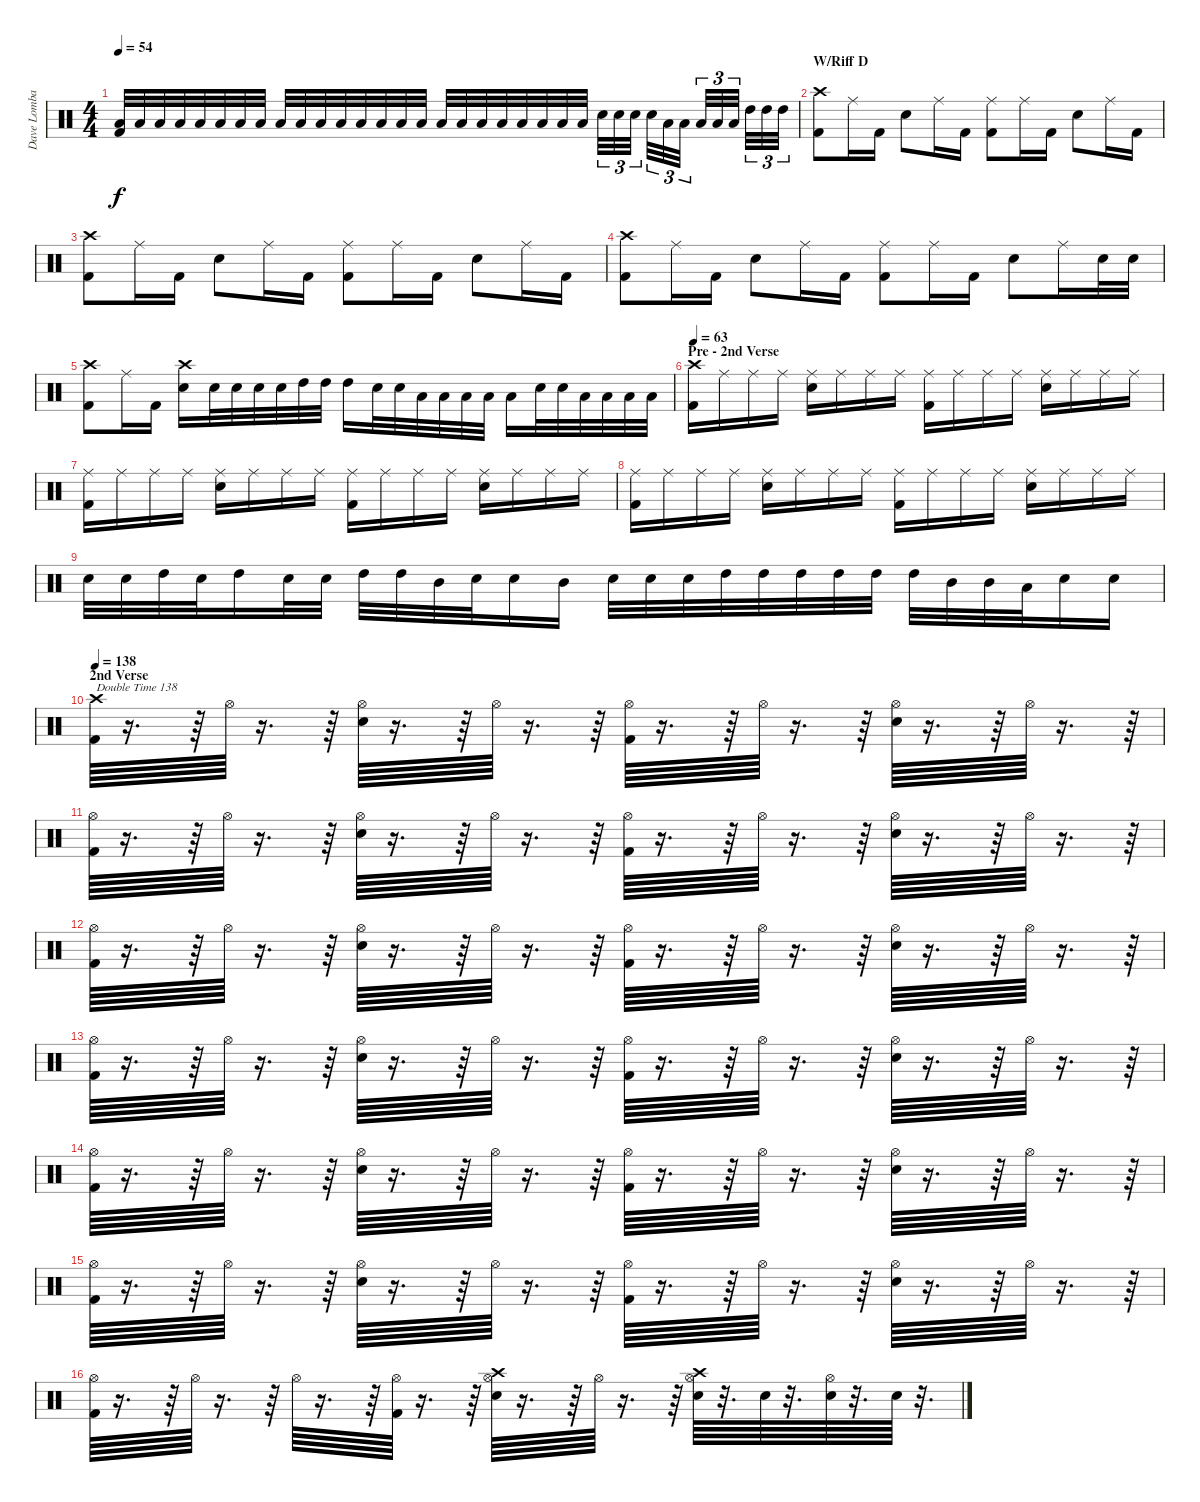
\track ("Dave Lombardo" "Dave Lomba") {instrument percussion}
\staff {score}
\articulation defaults
\ts (4 4)
\tempo 54
\clef neutral
\ks c
("Low Floor Tom (hit)" "Kick (hit) 2").32{dy f} "Low Floor Tom (hit)".32 "Low Floor Tom (hit)".32 "Low Floor Tom (hit)".32 "Low Floor Tom (hit)".32 "Low Floor Tom (hit)".32 "Low Floor Tom (hit)".32 "Low Floor Tom (hit)".32 "Low Floor Tom (hit)".32 "Low Floor Tom (hit)".32 "Low Floor Tom (hit)".32 "Low Floor Tom (hit)".32 "Low Floor Tom (hit)".32 "Low Floor Tom (hit)".32 "Low Floor Tom (hit)".32 "Low Floor Tom (hit)".32 "Low Floor Tom (hit)".32 "Low Floor Tom (hit)".32 "Low Floor Tom (hit)".32 "Low Floor Tom (hit)".32 "Low Floor Tom (hit)".32 "Low Floor Tom (hit)".32 "Low Floor Tom (hit)".32 "Low Floor Tom (hit)".32 "Snare (hit) 2".32{tu (3 2)} "Snare (hit) 2".32{tu (3 2)} "Snare (hit) 2".32{tu (3 2)} "Snare (hit) 2".32{tu (3 2)} "Low Tom (hit)".32{tu (3 2)} "Low Tom (hit)".32{tu (3 2)} "Low Tom (hit)".32{tu (3 2)} "Low Tom (hit)".32{tu (3 2)} "Low Tom (hit)".32{tu (3 2)} "High Tom (hit)".32{tu (3 2)} "High Tom (hit)".32{tu (3 2)} "High Tom (hit)".32{tu (3 2)} |
\section ("" "W/Riff D")
("Kick (hit) 2" "Crash high (hit)").8 "Ride (middle)".16 "Kick (hit) 2".16 "Snare (hit) 2".8 "Ride (middle)".16 "Kick (hit) 2".16 ("Kick (hit) 2" "Ride (middle)").8 "Ride (middle)".16 "Kick (hit) 2".16 "Snare (hit) 2".8 "Ride (middle)".16 "Kick (hit) 2".16 |
("Kick (hit) 2" "Crash high (hit)").8 "Ride (middle)".16 "Kick (hit) 2".16 "Snare (hit) 2".8 "Ride (middle)".16 "Kick (hit) 2".16 ("Kick (hit) 2" "Ride (middle)").8 "Ride (middle)".16 "Kick (hit) 2".16 "Snare (hit) 2".8 "Ride (middle)".16 "Kick (hit) 2".16 |
("Kick (hit) 2" "Crash high (hit)").8 "Ride (middle)".16 "Kick (hit) 2".16 "Snare (hit) 2".8 "Ride (middle)".16 "Kick (hit) 2".16 ("Kick (hit) 2" "Ride (middle)").8 "Ride (middle)".16 "Kick (hit) 2".16 "Snare (hit) 2".8 "Ride (middle)".16 "Snare (hit) 2".32 "Snare (hit) 2".32 |
("Kick (hit) 2" "Crash high (hit)").8 "Ride (middle)".16 "Kick (hit) 2".16 ("Snare (hit) 2" "Crash high (hit)").16 "Snare (hit) 2".32 "Snare (hit) 2".32 "Snare (hit) 2".32 "Snare (hit) 2".32 "High Tom (hit)".32 "High Tom (hit)".32 "High Tom (hit)".16 "Snare (hit) 2".32 "Snare (hit) 2".32 "Low Tom (hit)".32 "Low Tom (hit)".32 "Low Tom (hit)".32 "Low Tom (hit)".32 "Low Tom (hit)".16 "Snare (hit) 2".32 "Snare (hit) 2".32 "Low Floor Tom (hit)".32 "Low Floor Tom (hit)".32 "Low Floor Tom (hit)".32 "Low Floor Tom (hit)".32 |
\section ("" "Pre - 2nd Verse")
\tempo 63
("Kick (hit) 2" "Crash high (hit)").16 "Ride (middle)".16 "Ride (middle)".16 "Ride (middle)".16 ("Ride (middle)" "Snare (hit) 2").16 "Ride (middle)".16 "Ride (middle)".16 "Ride (middle)".16 ("Kick (hit) 2" "Ride (middle)").16 "Ride (middle)".16 "Ride (middle)".16 "Ride (middle)".16 ("Ride (middle)" "Snare (hit) 2").16 "Ride (middle)".16 "Ride (middle)".16 "Ride (middle)".16 |
("Kick (hit) 2" "Ride (middle)").16 "Ride (middle)".16 "Ride (middle)".16 "Ride (middle)".16 ("Ride (middle)" "Snare (hit) 2").16 "Ride (middle)".16 "Ride (middle)".16 "Ride (middle)".16 ("Kick (hit) 2" "Ride (middle)").16 "Ride (middle)".16 "Ride (middle)".16 "Ride (middle)".16 ("Ride (middle)" "Snare (hit) 2").16 "Ride (middle)".16 "Ride (middle)".16 "Ride (middle)".16 |
("Kick (hit) 2" "Ride (middle)").16 "Ride (middle)".16 "Ride (middle)".16 "Ride (middle)".16 ("Ride (middle)" "Snare (hit) 2").16 "Ride (middle)".16 "Ride (middle)".16 "Ride (middle)".16 ("Kick (hit) 2" "Ride (middle)").16 "Ride (middle)".16 "Ride (middle)".16 "Ride (middle)".16 ("Ride (middle)" "Snare (hit) 2").16 "Ride (middle)".16 "Ride (middle)".16 "Ride (middle)".16 |
"Snare (hit) 2".32 "Snare (hit) 2".32 "High Tom (hit)".32 "Snare (hit) 2".32 "High Tom (hit)".16 "Snare (hit) 2".32 "Snare (hit) 2".32 "High Tom (hit)".32 "High Tom (hit)".32 "Mid Tom (hit)".32 "Snare (hit) 2".32 "Snare (hit) 2".16 "Mid Tom (hit)".16 "Snare (hit) 2".32 "Snare (hit) 2".32 "Snare (hit) 2".32 "High Tom (hit)".32 "High Tom (hit)".32 "High Tom (hit)".32 "High Tom (hit)".32 "High Tom (hit)".32 "High Tom (hit)".32 "Mid Tom (hit)".32 "Mid Tom (hit)".32 "Low Tom (hit)".32 "Snare (hit) 2".16 "Snare (hit) 2".16 |
\section ("" "2nd Verse")
\tempo 138
("Kick (hit) 2" "Crash high (hit)").64{txt "Double Time 138"} r.16{d} r.64 "Hi-Hat (open)".64 r.16{d} r.64 ("Hi-Hat (open)" "Snare (hit) 2").64 r.16{d} r.64 "Hi-Hat (open)".64 r.16{d} r.64 ("Hi-Hat (open)" "Kick (hit) 2").64 r.16{d} r.64 "Hi-Hat (open)".64 r.16{d} r.64 ("Hi-Hat (open)" "Snare (hit) 2").64 r.16{d} r.64 "Hi-Hat (open)".64 r.16{d} r.64 |
("Hi-Hat (open)" "Kick (hit) 2").64 r.16{d} r.64 "Hi-Hat (open)".64 r.16{d} r.64 ("Hi-Hat (open)" "Snare (hit) 2").64 r.16{d} r.64 "Hi-Hat (open)".64 r.16{d} r.64 ("Hi-Hat (open)" "Kick (hit) 2").64 r.16{d} r.64 "Hi-Hat (open)".64 r.16{d} r.64 ("Hi-Hat (open)" "Snare (hit) 2").64 r.16{d} r.64 "Hi-Hat (open)".64 r.16{d} r.64 |
("Hi-Hat (open)" "Kick (hit) 2").64 r.16{d} r.64 "Hi-Hat (open)".64 r.16{d} r.64 ("Hi-Hat (open)" "Snare (hit) 2").64 r.16{d} r.64 "Hi-Hat (open)".64 r.16{d} r.64 ("Hi-Hat (open)" "Kick (hit) 2").64 r.16{d} r.64 "Hi-Hat (open)".64 r.16{d} r.64 ("Hi-Hat (open)" "Snare (hit) 2").64 r.16{d} r.64 "Hi-Hat (open)".64 r.16{d} r.64 |
("Hi-Hat (open)" "Kick (hit) 2").64 r.16{d} r.64 "Hi-Hat (open)".64 r.16{d} r.64 ("Hi-Hat (open)" "Snare (hit) 2").64 r.16{d} r.64 "Hi-Hat (open)".64 r.16{d} r.64 ("Hi-Hat (open)" "Kick (hit) 2").64 r.16{d} r.64 "Hi-Hat (open)".64 r.16{d} r.64 ("Hi-Hat (open)" "Snare (hit) 2").64 r.16{d} r.64 "Hi-Hat (open)".64 r.16{d} r.64 |
("Hi-Hat (open)" "Kick (hit) 2").64 r.16{d} r.64 "Hi-Hat (open)".64 r.16{d} r.64 ("Hi-Hat (open)" "Snare (hit) 2").64 r.16{d} r.64 "Hi-Hat (open)".64 r.16{d} r.64 ("Hi-Hat (open)" "Kick (hit) 2").64 r.16{d} r.64 "Hi-Hat (open)".64 r.16{d} r.64 ("Hi-Hat (open)" "Snare (hit) 2").64 r.16{d} r.64 "Hi-Hat (open)".64 r.16{d} r.64 |
("Hi-Hat (open)" "Kick (hit) 2").64 r.16{d} r.64 "Hi-Hat (open)".64 r.16{d} r.64 ("Hi-Hat (open)" "Snare (hit) 2").64 r.16{d} r.64 "Hi-Hat (open)".64 r.16{d} r.64 ("Hi-Hat (open)" "Kick (hit) 2").64 r.16{d} r.64 "Hi-Hat (open)".64 r.16{d} r.64 ("Hi-Hat (open)" "Snare (hit) 2").64 r.16{d} r.64 "Hi-Hat (open)".64 r.16{d} r.64 |
("Hi-Hat (open)" "Kick (hit) 2").64 r.16{d} r.64 "Hi-Hat (open)".64 r.16{d} r.64 "Hi-Hat (open)".64 r.16{d} r.64 ("Hi-Hat (open)" "Kick (hit) 2").64 r.16{d} r.64 ("Hi-Hat (open)" "Snare (hit) 2" "Crash high (hit)").64 r.16{d} r.64 "Hi-Hat (open)".64 r.16{d} r.64 ("Hi-Hat (open)" "Snare (hit) 2" "Crash high (hit)").64 r.32{d} "Snare (hit) 2".64 r.32{d} ("Hi-Hat (open)" "Snare (hit) 2").64 r.32{d} "Snare (hit) 2".64 r.32{d}
